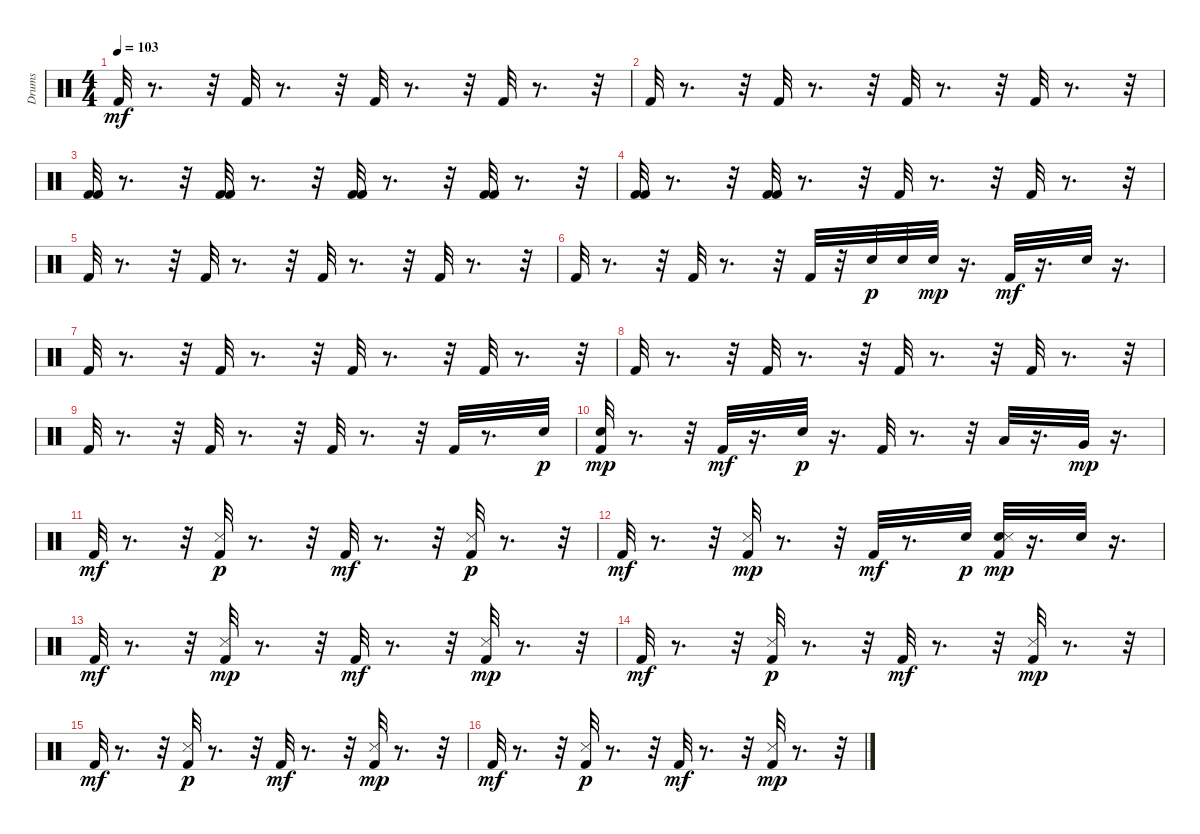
\track ("Drums" "Drums") {instrument percussion}
\staff {score}
\articulation defaults
\ts (4 4)
\tempo 103
\clef neutral
\ks c "Kick (hit) 2".32{dy mf}
r.8{d} r.32 "Kick (hit) 2".32 r.8{d} r.32 "Kick (hit) 2".32 r.8{d} r.32 "Kick (hit) 2".32 r.8{d} r.32 |
"Kick (hit) 2".32 r.8{d} r.32 "Kick (hit) 2".32 r.8{d} r.32 "Kick (hit) 2".32 r.8{d} r.32 "Kick (hit) 2".32 r.8{d} r.32 |
("Kick (hit) 2" "Kick (hit) 2").32 r.8{d} r.32 ("Kick (hit) 2" "Kick (hit) 2").32 r.8{d} r.32 ("Kick (hit) 2" "Kick (hit) 2").32 r.8{d} r.32 ("Kick (hit) 2" "Kick (hit) 2").32 r.8{d} r.32 |
("Kick (hit) 2" "Kick (hit) 2").32 r.8{d} r.32 ("Kick (hit) 2" "Kick (hit) 2").32 r.8{d} r.32 "Kick (hit) 2".32 r.8{d} r.32 "Kick (hit) 2".32 r.8{d} r.32 |
"Kick (hit) 2".32 r.8{d} r.32 "Kick (hit) 2".32 r.8{d} r.32 "Kick (hit) 2".32 r.8{d} r.32 "Kick (hit) 2".32 r.8{d} r.32 |
"Kick (hit) 2".32 r.8{d} r.32 "Kick (hit) 2".32 r.8{d} r.32 "Kick (hit) 2".32 r.32 "Electric Snare (hit)".32{dy p} "Electric Snare (hit)".32 "Electric Snare (hit)".32{dy mp} r.16{d} "Kick (hit) 2".32{dy mf} r.16{d} "Electric Snare (hit)".32 r.16{d} |
"Kick (hit) 2".32 r.8{d} r.32 "Kick (hit) 2".32 r.8{d} r.32 "Kick (hit) 2".32 r.8{d} r.32 "Kick (hit) 2".32 r.8{d} r.32 |
"Kick (hit) 2".32 r.8{d} r.32 "Kick (hit) 2".32 r.8{d} r.32 "Kick (hit) 2".32 r.8{d} r.32 "Kick (hit) 2".32 r.8{d} r.32 |
"Kick (hit) 2".32 r.8{d} r.32 "Kick (hit) 2".32 r.8{d} r.32 "Kick (hit) 2".32 r.8{d} r.32 "Kick (hit) 2".32 r.8{d} "Electric Snare (hit)".32{dy p} |
("Kick (hit) 2" "Electric Snare (hit)").32{dy mp} r.8{d} r.32 "Kick (hit) 2".32{dy mf} r.16{d} "Electric Snare (hit)".32{dy p} r.16{d} "Kick (hit) 2".32 r.8{d} r.32 "Low Tom (hit)".32 r.16{d} "Very Low Tom (hit)".32{dy mp} r.16{d} |
"Kick (hit) 2".32{dy mf} r.8{d} r.32 ("Kick (hit) 2" "Snare (side stick) 3").32{dy p} r.8{d} r.32 "Kick (hit) 2".32{dy mf} r.8{d} r.32 ("Kick (hit) 2" "Snare (side stick) 3").32{dy p} r.8{d} r.32 |
"Kick (hit) 2".32{dy mf} r.8{d} r.32 ("Kick (hit) 2" "Snare (side stick) 3").32{dy mp} r.8{d} r.32 "Kick (hit) 2".32{dy mf} r.8{d} "Electric Snare (hit)".32{dy p} ("Kick (hit) 2" "Electric Snare (hit)" "Snare (side stick) 3").32{dy mp} r.16{d} "Electric Snare (hit)".32 r.16{d} |
"Kick (hit) 2".32{dy mf} r.8{d} r.32 ("Kick (hit) 2" "Snare (side stick) 3").32{dy mp} r.8{d} r.32 "Kick (hit) 2".32{dy mf} r.8{d} r.32 ("Kick (hit) 2" "Snare (side stick) 3").32{dy mp} r.8{d} r.32 |
"Kick (hit) 2".32{dy mf} r.8{d} r.32 ("Kick (hit) 2" "Snare (side stick) 3").32{dy p} r.8{d} r.32 "Kick (hit) 2".32{dy mf} r.8{d} r.32 ("Kick (hit) 2" "Snare (side stick) 3").32{dy mp} r.8{d} r.32 |
"Kick (hit) 2".32{dy mf} r.8{d} r.32 ("Kick (hit) 2" "Snare (side stick) 3").32{dy p} r.8{d} r.32 "Kick (hit) 2".32{dy mf} r.8{d} r.32 ("Kick (hit) 2" "Snare (side stick) 3").32{dy mp} r.8{d} r.32 |
"Kick (hit) 2".32{dy mf} r.8{d} r.32 ("Kick (hit) 2" "Snare (side stick) 3").32{dy p} r.8{d} r.32 "Kick (hit) 2".32{dy mf} r.8{d} r.32 ("Kick (hit) 2" "Snare (side stick) 3").32{dy mp} r.8{d} r.32
